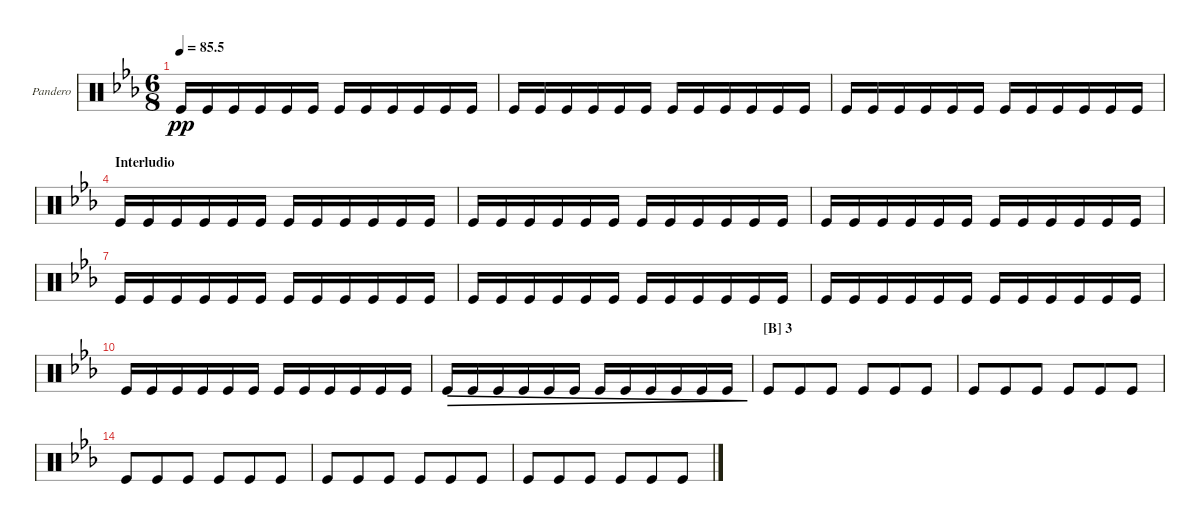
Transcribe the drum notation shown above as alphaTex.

\defaultSystemsLayout 4
\bracketExtendMode groupsimilarinstruments
\multiTrackTrackNamePolicy allsystems
\firstSystemTrackNameOrientation horizontal
\otherSystemsTrackNameOrientation horizontal
\defaultBarNumberDisplay FirstOfSystem
\track ("Pandero" "Pandero") {instrument percussion}
\staff {score}
\articulation defaults
\ts (6 8)
\tempo
85.5
\accidentals auto
\clef neutral
\ottava regular
\simile none
\scale
0.333333
\ks eb "Kick (hit)".16{dy pp} "Kick (hit)".16 "Kick (hit)".16 "Kick (hit)".16 "Kick (hit)".16 "Kick (hit)".16 "Kick (hit)".16 "Kick (hit)".16 "Kick (hit)".16 "Kick (hit)".16 "Kick (hit)".16 "Kick (hit)".16
|
\scale
0.333333 "Kick (hit)".16 "Kick (hit)".16 "Kick (hit)".16 "Kick (hit)".16 "Kick (hit)".16 "Kick (hit)".16 "Kick (hit)".16 "Kick (hit)".16 "Kick (hit)".16 "Kick (hit)".16 "Kick (hit)".16 "Kick (hit)".16 |
\scale
0.333333 "Kick (hit)".16 "Kick (hit)".16 "Kick (hit)".16 "Kick (hit)".16 "Kick (hit)".16 "Kick (hit)".16 "Kick (hit)".16 "Kick (hit)".16 "Kick (hit)".16 "Kick (hit)".16 "Kick (hit)".16 "Kick (hit)".16 |
\section ("" "Interludio")
\scale
0.333333 "Kick (hit)".16 "Kick (hit)".16 "Kick (hit)".16 "Kick (hit)".16 "Kick (hit)".16 "Kick (hit)".16 "Kick (hit)".16 "Kick (hit)".16 "Kick (hit)".16 "Kick (hit)".16 "Kick (hit)".16 "Kick (hit)".16 |
\scale
0.333333 "Kick (hit)".16 "Kick (hit)".16 "Kick (hit)".16 "Kick (hit)".16 "Kick (hit)".16 "Kick (hit)".16 "Kick (hit)".16 "Kick (hit)".16 "Kick (hit)".16 "Kick (hit)".16 "Kick (hit)".16 "Kick (hit)".16 |
\scale
0.333333 "Kick (hit)".16 "Kick (hit)".16 "Kick (hit)".16 "Kick (hit)".16 "Kick (hit)".16 "Kick (hit)".16 "Kick (hit)".16 "Kick (hit)".16 "Kick (hit)".16 "Kick (hit)".16 "Kick (hit)".16 "Kick (hit)".16 |
\scale
0.333333 "Kick (hit)".16 "Kick (hit)".16 "Kick (hit)".16 "Kick (hit)".16 "Kick (hit)".16 "Kick (hit)".16 "Kick (hit)".16 "Kick (hit)".16 "Kick (hit)".16 "Kick (hit)".16 "Kick (hit)".16 "Kick (hit)".16 |
\scale
0.333333 "Kick (hit)".16 "Kick (hit)".16 "Kick (hit)".16 "Kick (hit)".16 "Kick (hit)".16 "Kick (hit)".16 "Kick (hit)".16 "Kick (hit)".16 "Kick (hit)".16 "Kick (hit)".16 "Kick (hit)".16 "Kick (hit)".16 |
\scale
0.333333 "Kick (hit)".16 "Kick (hit)".16 "Kick (hit)".16 "Kick (hit)".16 "Kick (hit)".16 "Kick (hit)".16 "Kick (hit)".16 "Kick (hit)".16 "Kick (hit)".16 "Kick (hit)".16 "Kick (hit)".16 "Kick (hit)".16 |
\scale
0.333333 "Kick (hit)".16 "Kick (hit)".16 "Kick (hit)".16 "Kick (hit)".16 "Kick (hit)".16 "Kick (hit)".16 "Kick (hit)".16 "Kick (hit)".16 "Kick (hit)".16 "Kick (hit)".16 "Kick (hit)".16 "Kick (hit)".16 |
\scale
0.333333 "Kick (hit)".16{dec} "Kick (hit)".16{dec} "Kick (hit)".16{dec} "Kick (hit)".16{dec} "Kick (hit)".16{dec} "Kick (hit)".16{dec} "Kick (hit)".16{dec} "Kick (hit)".16{dec} "Kick (hit)".16{dec} "Kick (hit)".16{dec} "Kick (hit)".16{dec} "Kick (hit)".16{dec} |
\section ("B" "3")
\scale
0.333333 "Kick (hit)".8 "Kick (hit)".8 "Kick (hit)".8 "Kick (hit)".8 "Kick (hit)".8 "Kick (hit)".8 |
\scale
0.333333 "Kick (hit)".8 "Kick (hit)".8 "Kick (hit)".8 "Kick (hit)".8 "Kick (hit)".8 "Kick (hit)".8 |
\scale
0.333333 "Kick (hit)".8 "Kick (hit)".8 "Kick (hit)".8 "Kick (hit)".8 "Kick (hit)".8 "Kick (hit)".8 |
\scale
0.333333 "Kick (hit)".8 "Kick (hit)".8 "Kick (hit)".8 "Kick (hit)".8 "Kick (hit)".8 "Kick (hit)".8 |
\scale
0.333333 "Kick (hit)".8 "Kick (hit)".8 "Kick (hit)".8 "Kick (hit)".8 "Kick (hit)".8 "Kick (hit)".8
